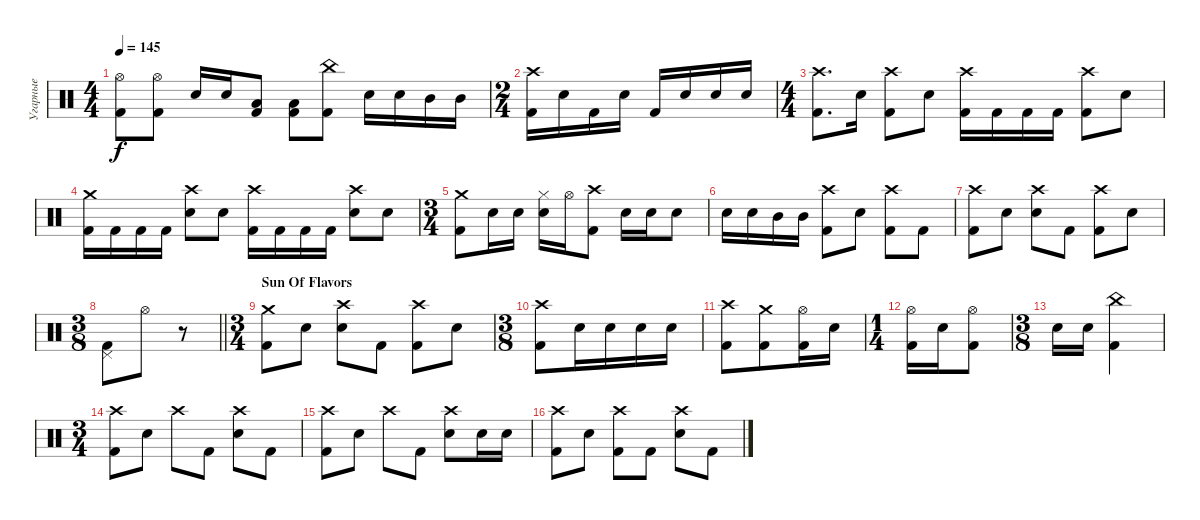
\track ("Угарные" "Угарные") {instrument percussion}
\staff {score}
\articulation defaults
\ts (4 4)
\tempo 145
\clef neutral
\ks c
("Kick (hit) 2" "Hi-Hat (open)").8{dy f} ("Kick (hit) 2" "Hi-Hat (open)").8 "Electric Snare (hit)".16 "Electric Snare (hit)".16 ("Kick (hit) 2" "Low Floor Tom (hit)").8 ("Kick (hit) 2" "Low Floor Tom (hit)").8 ("Kick (hit) 2" "China (hit)").8 "Electric Snare (hit)".16 "Electric Snare (hit)".16 "Mid Tom (hit)".16 "Mid Tom (hit)".16 |
\ts (2 4)
("Crash high (hit)" "Kick (hit) 2").16 "Electric Snare (hit)".16 "Kick (hit) 2".16 "Electric Snare (hit)".16 "Kick (hit) 2".16 "Electric Snare (hit)".16 "Electric Snare (hit)".16 "Electric Snare (hit)".16 |
\ts (4 4)
("Kick (hit) 2" "Crash high (hit)").8{d} "Electric Snare (hit)".16 ("Crash high (hit)" "Kick (hit) 2").8 "Electric Snare (hit)".8 ("Crash high (hit)" "Kick (hit) 2").16 "Kick (hit) 2".16 "Kick (hit) 2".16 "Kick (hit) 2".16 ("Crash high (hit)" "Kick (hit) 2").8 "Electric Snare (hit)".8 |
("Kick (hit) 2" "Crash medium (hit)").16 "Kick (hit) 2".16 "Kick (hit) 2".16 "Kick (hit) 2".16 ("Crash high (hit)" "Electric Snare (hit)").8 "Electric Snare (hit)".8 ("Kick (hit) 2" "Crash high (hit)").16 "Kick (hit) 2".16 "Kick (hit) 2".16 "Kick (hit) 2".16 ("Crash high (hit)" "Electric Snare (hit)").8 "Electric Snare (hit)".8 |
\ts (3 4)
("Kick (hit) 2" "Crash medium (hit)").8 "Electric Snare (hit)".16 "Electric Snare (hit)".16 ("Electric Snare (hit)" "Hi-Hat (closed)").16 "Hi-Hat (open)".16 ("Kick (hit) 2" "Crash high (hit)").8 "Electric Snare (hit)".16 "Electric Snare (hit)".16 "Electric Snare (hit)".8 |
"Electric Snare (hit)".16 "Electric Snare (hit)".16 "Mid Tom (hit)".16 "Mid Tom (hit)".16 ("Kick (hit) 2" "Crash high (hit)").8 "Electric Snare (hit)".8 ("Kick (hit) 2" "Crash high (hit)").8 "Kick (hit) 2".8 |
("Kick (hit) 2" "Crash high (hit)").8 "Electric Snare (hit)".8 ("Electric Snare (hit)" "Crash high (hit)").8 "Kick (hit) 2".8 ("Kick (hit) 2" "Crash high (hit)").8 "Electric Snare (hit)".8 |
\ts (3 8)
\barLineRight lightlight
("Kick (hit) 2" "Pedal Hi-Hat (hit)").8 "Hi-Hat (open)".8 r.8 |
\ts (3 4)
\section ("" "Sun Of Flavors")
("Kick (hit) 2" "Crash medium (hit)").8 "Electric Snare (hit)".8 ("Electric Snare (hit)" "Crash high (hit)").8 "Kick (hit) 2".8 ("Kick (hit) 2" "Crash high (hit)").8 "Electric Snare (hit)".8 |
\ts (3 8)
("Kick (hit) 2" "Crash high (hit)").8 "Electric Snare (hit)".16 "Electric Snare (hit)".16 "Electric Snare (hit)".16 "Electric Snare (hit)".16 |
("Kick (hit) 2" "Crash high (hit)").8 ("Crash medium (hit)" "Kick (hit) 2").8 ("Hi-Hat (open)" "Kick (hit) 2").16 "Electric Snare (hit)".16 |
\ts (1 4)
("Hi-Hat (open)" "Kick (hit) 2").16 "Electric Snare (hit)".16 ("Hi-Hat (open)" "Kick (hit) 2").8 |
\ts (3 8)
"Electric Snare (hit)".16 "Electric Snare (hit)".16 ("Kick (hit) 2" "China (hit)").4 |
\ts (3 4)
("Crash high (hit)" "Kick (hit) 2").8 "Electric Snare (hit)".8 "Crash high (hit)".8 "Kick (hit) 2".8 ("Crash high (hit)" "Electric Snare (hit)").8 "Kick (hit) 2".8 |
("Crash high (hit)" "Kick (hit) 2").8 "Electric Snare (hit)".8 "Crash high (hit)".8 "Kick (hit) 2".8 ("Crash high (hit)" "Electric Snare (hit)").8 "Electric Snare (hit)".16 "Electric Snare (hit)".16 |
("Kick (hit) 2" "Crash high (hit)").8 "Electric Snare (hit)".8 ("Kick (hit) 2" "Crash high (hit)").8 "Kick (hit) 2".8 ("Electric Snare (hit)" "Crash high (hit)").8 "Kick (hit) 2".8
